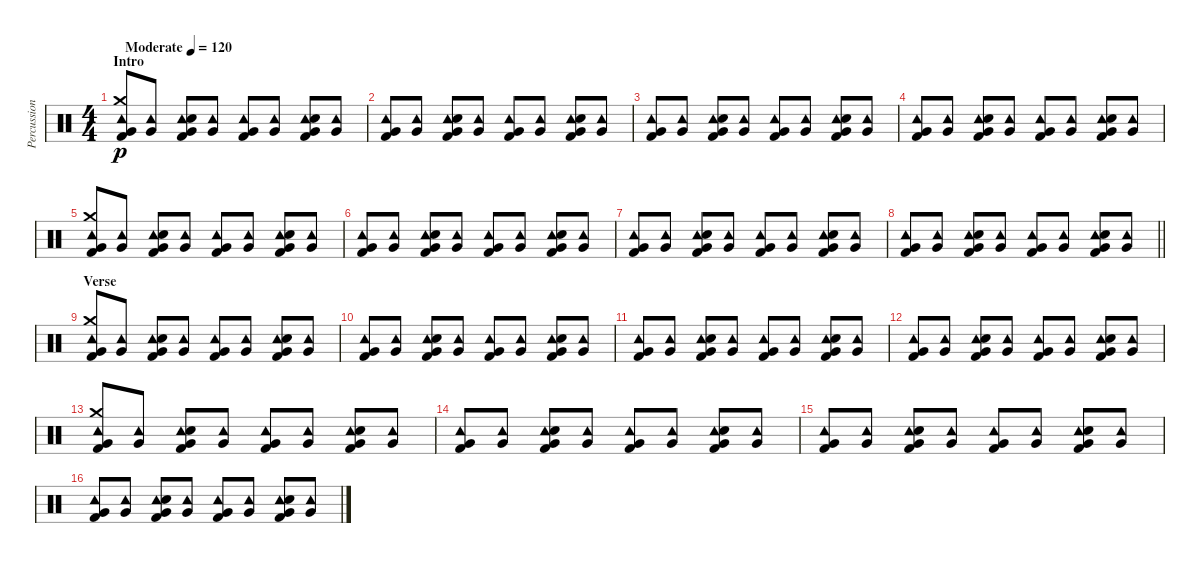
\track ("Percussion" "Percussion") {instrument percussion}
\staff {score}
\articulation defaults
\ts (4 4)
\section ("" "Intro")
\tempo (120 "Moderate")
\clef neutral
\ks c
("Tambourine (hit)" "Crash medium (hit)" "Very Low Tom (hit)" "Kick (hit) 2").8{dy p} ("Tambourine (hit)" "Very Low Tom (hit)").8 ("Tambourine (hit)" "Very Low Tom (hit)" "Snare (hit) 2" "Kick (hit) 2").8 ("Tambourine (hit)" "Very Low Tom (hit)").8 ("Tambourine (hit)" "Very Low Tom (hit)" "Kick (hit) 2").8 ("Tambourine (hit)" "Very Low Tom (hit)").8 ("Tambourine (hit)" "Very Low Tom (hit)" "Snare (hit) 2" "Kick (hit) 2").8 ("Tambourine (hit)" "Very Low Tom (hit)").8 |
("Tambourine (hit)" "Very Low Tom (hit)" "Kick (hit) 2").8 ("Tambourine (hit)" "Very Low Tom (hit)").8 ("Tambourine (hit)" "Very Low Tom (hit)" "Snare (hit) 2" "Kick (hit) 2").8 ("Tambourine (hit)" "Very Low Tom (hit)").8 ("Tambourine (hit)" "Very Low Tom (hit)" "Kick (hit) 2").8 ("Tambourine (hit)" "Very Low Tom (hit)").8 ("Tambourine (hit)" "Very Low Tom (hit)" "Snare (hit) 2" "Kick (hit) 2").8 ("Tambourine (hit)" "Very Low Tom (hit)").8 |
("Tambourine (hit)" "Very Low Tom (hit)" "Kick (hit) 2").8 ("Tambourine (hit)" "Very Low Tom (hit)").8 ("Tambourine (hit)" "Very Low Tom (hit)" "Snare (hit) 2" "Kick (hit) 2").8 ("Tambourine (hit)" "Very Low Tom (hit)").8 ("Tambourine (hit)" "Very Low Tom (hit)" "Kick (hit) 2").8 ("Tambourine (hit)" "Very Low Tom (hit)").8 ("Tambourine (hit)" "Very Low Tom (hit)" "Snare (hit) 2" "Kick (hit) 2").8 ("Tambourine (hit)" "Very Low Tom (hit)").8 |
("Tambourine (hit)" "Very Low Tom (hit)" "Kick (hit) 2").8 ("Tambourine (hit)" "Very Low Tom (hit)").8 ("Tambourine (hit)" "Very Low Tom (hit)" "Snare (hit) 2" "Kick (hit) 2").8 ("Tambourine (hit)" "Very Low Tom (hit)").8 ("Tambourine (hit)" "Very Low Tom (hit)" "Kick (hit) 2").8 ("Tambourine (hit)" "Very Low Tom (hit)").8 ("Tambourine (hit)" "Very Low Tom (hit)" "Snare (hit) 2" "Kick (hit) 2").8 ("Tambourine (hit)" "Very Low Tom (hit)").8 |
("Tambourine (hit)" "Crash medium (hit)" "Very Low Tom (hit)" "Kick (hit) 2").8 ("Tambourine (hit)" "Very Low Tom (hit)").8 ("Tambourine (hit)" "Very Low Tom (hit)" "Snare (hit) 2" "Kick (hit) 2").8 ("Tambourine (hit)" "Very Low Tom (hit)").8 ("Tambourine (hit)" "Very Low Tom (hit)" "Kick (hit) 2").8 ("Tambourine (hit)" "Very Low Tom (hit)").8 ("Tambourine (hit)" "Very Low Tom (hit)" "Snare (hit) 2" "Kick (hit) 2").8 ("Tambourine (hit)" "Very Low Tom (hit)").8 |
("Tambourine (hit)" "Very Low Tom (hit)" "Kick (hit) 2").8 ("Tambourine (hit)" "Very Low Tom (hit)").8 ("Tambourine (hit)" "Very Low Tom (hit)" "Snare (hit) 2" "Kick (hit) 2").8 ("Tambourine (hit)" "Very Low Tom (hit)").8 ("Tambourine (hit)" "Very Low Tom (hit)" "Kick (hit) 2").8 ("Tambourine (hit)" "Very Low Tom (hit)").8 ("Tambourine (hit)" "Very Low Tom (hit)" "Snare (hit) 2" "Kick (hit) 2").8 ("Tambourine (hit)" "Very Low Tom (hit)").8 |
("Tambourine (hit)" "Very Low Tom (hit)" "Kick (hit) 2").8 ("Tambourine (hit)" "Very Low Tom (hit)").8 ("Tambourine (hit)" "Very Low Tom (hit)" "Snare (hit) 2" "Kick (hit) 2").8 ("Tambourine (hit)" "Very Low Tom (hit)").8 ("Tambourine (hit)" "Very Low Tom (hit)" "Kick (hit) 2").8 ("Tambourine (hit)" "Very Low Tom (hit)").8 ("Tambourine (hit)" "Very Low Tom (hit)" "Snare (hit) 2" "Kick (hit) 2").8 ("Tambourine (hit)" "Very Low Tom (hit)").8 |
\barLineRight lightlight
("Tambourine (hit)" "Very Low Tom (hit)" "Kick (hit) 2").8 ("Tambourine (hit)" "Very Low Tom (hit)").8 ("Tambourine (hit)" "Very Low Tom (hit)" "Snare (hit) 2" "Kick (hit) 2").8 ("Tambourine (hit)" "Very Low Tom (hit)").8 ("Tambourine (hit)" "Very Low Tom (hit)" "Kick (hit) 2").8 ("Tambourine (hit)" "Very Low Tom (hit)").8 ("Tambourine (hit)" "Very Low Tom (hit)" "Snare (hit) 2" "Kick (hit) 2").8 ("Tambourine (hit)" "Very Low Tom (hit)").8 |
\section ("" "Verse")
("Tambourine (hit)" "Crash medium (hit)" "Very Low Tom (hit)" "Kick (hit) 2").8 ("Tambourine (hit)" "Very Low Tom (hit)").8 ("Tambourine (hit)" "Very Low Tom (hit)" "Snare (hit) 2" "Kick (hit) 2").8 ("Tambourine (hit)" "Very Low Tom (hit)").8 ("Tambourine (hit)" "Very Low Tom (hit)" "Kick (hit) 2").8 ("Tambourine (hit)" "Very Low Tom (hit)").8 ("Tambourine (hit)" "Very Low Tom (hit)" "Snare (hit) 2" "Kick (hit) 2").8 ("Tambourine (hit)" "Very Low Tom (hit)").8 |
("Tambourine (hit)" "Very Low Tom (hit)" "Kick (hit) 2").8 ("Tambourine (hit)" "Very Low Tom (hit)").8 ("Tambourine (hit)" "Very Low Tom (hit)" "Snare (hit) 2" "Kick (hit) 2").8 ("Tambourine (hit)" "Very Low Tom (hit)").8 ("Tambourine (hit)" "Very Low Tom (hit)" "Kick (hit) 2").8 ("Tambourine (hit)" "Very Low Tom (hit)").8 ("Tambourine (hit)" "Very Low Tom (hit)" "Snare (hit) 2" "Kick (hit) 2").8 ("Tambourine (hit)" "Very Low Tom (hit)").8 |
("Tambourine (hit)" "Very Low Tom (hit)" "Kick (hit) 2").8 ("Tambourine (hit)" "Very Low Tom (hit)").8 ("Tambourine (hit)" "Very Low Tom (hit)" "Snare (hit) 2" "Kick (hit) 2").8 ("Tambourine (hit)" "Very Low Tom (hit)").8 ("Tambourine (hit)" "Very Low Tom (hit)" "Kick (hit) 2").8 ("Tambourine (hit)" "Very Low Tom (hit)").8 ("Tambourine (hit)" "Very Low Tom (hit)" "Snare (hit) 2" "Kick (hit) 2").8 ("Tambourine (hit)" "Very Low Tom (hit)").8 |
("Tambourine (hit)" "Very Low Tom (hit)" "Kick (hit) 2").8 ("Tambourine (hit)" "Very Low Tom (hit)").8 ("Tambourine (hit)" "Very Low Tom (hit)" "Snare (hit) 2" "Kick (hit) 2").8 ("Tambourine (hit)" "Very Low Tom (hit)").8 ("Tambourine (hit)" "Very Low Tom (hit)" "Kick (hit) 2").8 ("Tambourine (hit)" "Very Low Tom (hit)").8 ("Tambourine (hit)" "Very Low Tom (hit)" "Snare (hit) 2" "Kick (hit) 2").8 ("Tambourine (hit)" "Very Low Tom (hit)").8 |
("Tambourine (hit)" "Crash medium (hit)" "Very Low Tom (hit)" "Kick (hit) 2").8 ("Tambourine (hit)" "Very Low Tom (hit)").8 ("Tambourine (hit)" "Very Low Tom (hit)" "Snare (hit) 2" "Kick (hit) 2").8 ("Tambourine (hit)" "Very Low Tom (hit)").8 ("Tambourine (hit)" "Very Low Tom (hit)" "Kick (hit) 2").8 ("Tambourine (hit)" "Very Low Tom (hit)").8 ("Tambourine (hit)" "Very Low Tom (hit)" "Snare (hit) 2" "Kick (hit) 2").8 ("Tambourine (hit)" "Very Low Tom (hit)").8 |
("Tambourine (hit)" "Very Low Tom (hit)" "Kick (hit) 2").8 ("Tambourine (hit)" "Very Low Tom (hit)").8 ("Tambourine (hit)" "Very Low Tom (hit)" "Snare (hit) 2" "Kick (hit) 2").8 ("Tambourine (hit)" "Very Low Tom (hit)").8 ("Tambourine (hit)" "Very Low Tom (hit)" "Kick (hit) 2").8 ("Tambourine (hit)" "Very Low Tom (hit)").8 ("Tambourine (hit)" "Very Low Tom (hit)" "Snare (hit) 2" "Kick (hit) 2").8 ("Tambourine (hit)" "Very Low Tom (hit)").8 |
("Tambourine (hit)" "Very Low Tom (hit)" "Kick (hit) 2").8 ("Tambourine (hit)" "Very Low Tom (hit)").8 ("Tambourine (hit)" "Very Low Tom (hit)" "Snare (hit) 2" "Kick (hit) 2").8 ("Tambourine (hit)" "Very Low Tom (hit)").8 ("Tambourine (hit)" "Very Low Tom (hit)" "Kick (hit) 2").8 ("Tambourine (hit)" "Very Low Tom (hit)").8 ("Tambourine (hit)" "Very Low Tom (hit)" "Snare (hit) 2" "Kick (hit) 2").8 ("Tambourine (hit)" "Very Low Tom (hit)").8 |
("Tambourine (hit)" "Very Low Tom (hit)" "Kick (hit) 2").8 ("Tambourine (hit)" "Very Low Tom (hit)").8 ("Tambourine (hit)" "Very Low Tom (hit)" "Snare (hit) 2" "Kick (hit) 2").8 ("Tambourine (hit)" "Very Low Tom (hit)").8 ("Tambourine (hit)" "Very Low Tom (hit)" "Kick (hit) 2").8 ("Tambourine (hit)" "Very Low Tom (hit)").8 ("Tambourine (hit)" "Very Low Tom (hit)" "Snare (hit) 2" "Kick (hit) 2").8 ("Tambourine (hit)" "Very Low Tom (hit)").8
